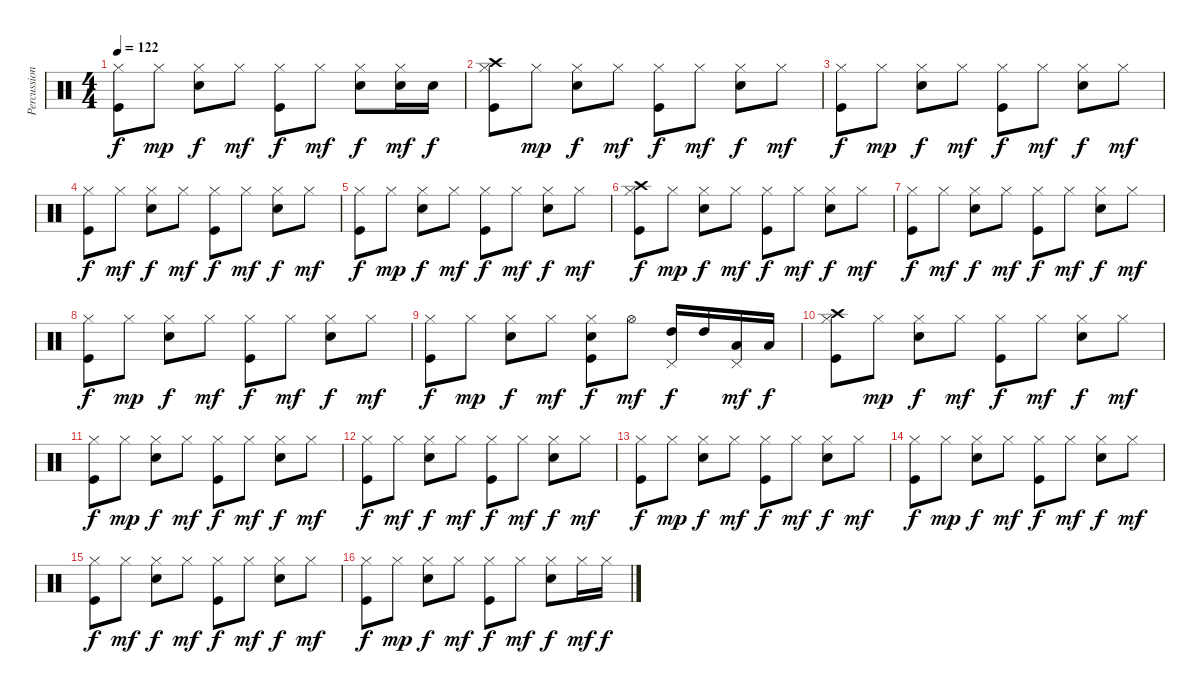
\track ("Percussion" "Percussion") {instrument percussion}
\staff {score}
\articulation defaults
\ts (4 4)
\tempo 122
\clef neutral
\ks c
("Hi-Hat (closed)" "Kick (hit)").8{dy f} "Hi-Hat (closed)".8{dy mp} ("Hi-Hat (closed)" "Snare (hit) 2").8{dy f} "Hi-Hat (closed)".8{dy mf} ("Hi-Hat (closed)" "Kick (hit)").8{dy f} "Hi-Hat (closed)".8{dy mf} ("Hi-Hat (closed)" "Snare (hit) 2").8{dy f} ("Hi-Hat (closed)" "Snare (hit) 2").16{dy mf} "Snare (hit) 2".16{dy f} |
("Crash high (hit)" "Hi-Hat (closed)" "Kick (hit)").8 "Hi-Hat (closed)".8{dy mp} ("Hi-Hat (closed)" "Snare (hit) 2").8{dy f} "Hi-Hat (closed)".8{dy mf} ("Hi-Hat (closed)" "Kick (hit)").8{dy f} "Hi-Hat (closed)".8{dy mf} ("Hi-Hat (closed)" "Snare (hit) 2").8{dy f} "Hi-Hat (closed)".8{dy mf} |
("Hi-Hat (closed)" "Kick (hit)").8{dy f} "Hi-Hat (closed)".8{dy mp} ("Hi-Hat (closed)" "Snare (hit) 2").8{dy f} "Hi-Hat (closed)".8{dy mf} ("Hi-Hat (closed)" "Kick (hit)").8{dy f} "Hi-Hat (closed)".8{dy mf} ("Hi-Hat (closed)" "Snare (hit) 2").8{dy f} "Hi-Hat (closed)".8{dy mf} |
("Hi-Hat (closed)" "Kick (hit)").8{dy f} "Hi-Hat (closed)".8{dy mf} ("Hi-Hat (closed)" "Snare (hit) 2").8{dy f} "Hi-Hat (closed)".8{dy mf} ("Hi-Hat (closed)" "Kick (hit)").8{dy f} "Hi-Hat (closed)".8{dy mf} ("Hi-Hat (closed)" "Snare (hit) 2").8{dy f} "Hi-Hat (closed)".8{dy mf} |
("Hi-Hat (closed)" "Kick (hit)").8{dy f} "Hi-Hat (closed)".8{dy mp} ("Hi-Hat (closed)" "Snare (hit) 2").8{dy f} "Hi-Hat (closed)".8{dy mf} ("Hi-Hat (closed)" "Kick (hit)").8{dy f} "Hi-Hat (closed)".8{dy mf} ("Hi-Hat (closed)" "Snare (hit) 2").8{dy f} "Hi-Hat (closed)".8{dy mf} |
("Crash high (hit)" "Hi-Hat (closed)" "Kick (hit)").8{dy f} "Hi-Hat (closed)".8{dy mp} ("Hi-Hat (closed)" "Snare (hit) 2").8{dy f} "Hi-Hat (closed)".8{dy mf} ("Hi-Hat (closed)" "Kick (hit)").8{dy f} "Hi-Hat (closed)".8{dy mf} ("Hi-Hat (closed)" "Snare (hit) 2").8{dy f} "Hi-Hat (closed)".8{dy mf} |
("Hi-Hat (closed)" "Kick (hit)").8{dy f} "Hi-Hat (closed)".8{dy mf} ("Hi-Hat (closed)" "Snare (hit) 2").8{dy f} "Hi-Hat (closed)".8{dy mf} ("Hi-Hat (closed)" "Kick (hit)").8{dy f} "Hi-Hat (closed)".8{dy mf} ("Hi-Hat (closed)" "Snare (hit) 2").8{dy f} "Hi-Hat (closed)".8{dy mf} |
("Hi-Hat (closed)" "Kick (hit)").8{dy f} "Hi-Hat (closed)".8{dy mp} ("Hi-Hat (closed)" "Snare (hit) 2").8{dy f} "Hi-Hat (closed)".8{dy mf} ("Hi-Hat (closed)" "Kick (hit)").8{dy f} "Hi-Hat (closed)".8{dy mf} ("Hi-Hat (closed)" "Snare (hit) 2").8{dy f} "Hi-Hat (closed)".8{dy mf} |
("Hi-Hat (closed)" "Kick (hit)").8{dy f} "Hi-Hat (closed)".8{dy mp} ("Hi-Hat (closed)" "Snare (hit) 2").8{dy f} "Hi-Hat (closed)".8{dy mf} ("Hi-Hat (closed)" "Snare (hit) 2" "Kick (hit)").8{dy f} "Hi-Hat (open)".8{dy mf} ("High Tom (hit)" "Pedal Hi-Hat (hit)").16{dy f} "High Tom (hit)".16 ("Low Tom (hit)" "Pedal Hi-Hat (hit)").16{dy mf} "Low Tom (hit)".16{dy f} |
("Crash high (hit)" "Hi-Hat (closed)" "Kick (hit)").8 "Hi-Hat (closed)".8{dy mp} ("Hi-Hat (closed)" "Snare (hit) 2").8{dy f} "Hi-Hat (closed)".8{dy mf} ("Hi-Hat (closed)" "Kick (hit)").8{dy f} "Hi-Hat (closed)".8{dy mf} ("Hi-Hat (closed)" "Snare (hit) 2").8{dy f} "Hi-Hat (closed)".8{dy mf} |
("Hi-Hat (closed)" "Kick (hit)").8{dy f} "Hi-Hat (closed)".8{dy mp} ("Hi-Hat (closed)" "Snare (hit) 2").8{dy f} "Hi-Hat (closed)".8{dy mf} ("Hi-Hat (closed)" "Kick (hit)").8{dy f} "Hi-Hat (closed)".8{dy mf} ("Hi-Hat (closed)" "Snare (hit) 2").8{dy f} "Hi-Hat (closed)".8{dy mf} |
("Hi-Hat (closed)" "Kick (hit)").8{dy f} "Hi-Hat (closed)".8{dy mf} ("Hi-Hat (closed)" "Snare (hit) 2").8{dy f} "Hi-Hat (closed)".8{dy mf} ("Hi-Hat (closed)" "Kick (hit)").8{dy f} "Hi-Hat (closed)".8{dy mf} ("Hi-Hat (closed)" "Snare (hit) 2").8{dy f} "Hi-Hat (closed)".8{dy mf} |
("Hi-Hat (closed)" "Kick (hit)").8{dy f} "Hi-Hat (closed)".8{dy mp} ("Hi-Hat (closed)" "Snare (hit) 2").8{dy f} "Hi-Hat (closed)".8{dy mf} ("Hi-Hat (closed)" "Kick (hit)").8{dy f} "Hi-Hat (closed)".8{dy mf} ("Hi-Hat (closed)" "Snare (hit) 2").8{dy f} "Hi-Hat (closed)".8{dy mf} |
("Hi-Hat (closed)" "Kick (hit)").8{dy f} "Hi-Hat (closed)".8{dy mp} ("Hi-Hat (closed)" "Snare (hit) 2").8{dy f} "Hi-Hat (closed)".8{dy mf} ("Hi-Hat (closed)" "Kick (hit)").8{dy f} "Hi-Hat (closed)".8{dy mf} ("Hi-Hat (closed)" "Snare (hit) 2").8{dy f} "Hi-Hat (closed)".8{dy mf} |
("Hi-Hat (closed)" "Kick (hit)").8{dy f} "Hi-Hat (closed)".8{dy mf} ("Hi-Hat (closed)" "Snare (hit) 2").8{dy f} "Hi-Hat (closed)".8{dy mf} ("Hi-Hat (closed)" "Kick (hit)").8{dy f} "Hi-Hat (closed)".8{dy mf} ("Hi-Hat (closed)" "Snare (hit) 2").8{dy f} "Hi-Hat (closed)".8{dy mf} |
("Hi-Hat (closed)" "Kick (hit)").8{dy f} "Hi-Hat (closed)".8{dy mp} ("Hi-Hat (closed)" "Snare (hit) 2").8{dy f} "Hi-Hat (closed)".8{dy mf} ("Hi-Hat (closed)" "Kick (hit)").8{dy f} "Hi-Hat (closed)".8{dy mf} ("Hi-Hat (closed)" "Snare (hit) 2").8{dy f} "Hi-Hat (closed)".16{dy mf} "Hi-Hat (closed)".16{dy f}
